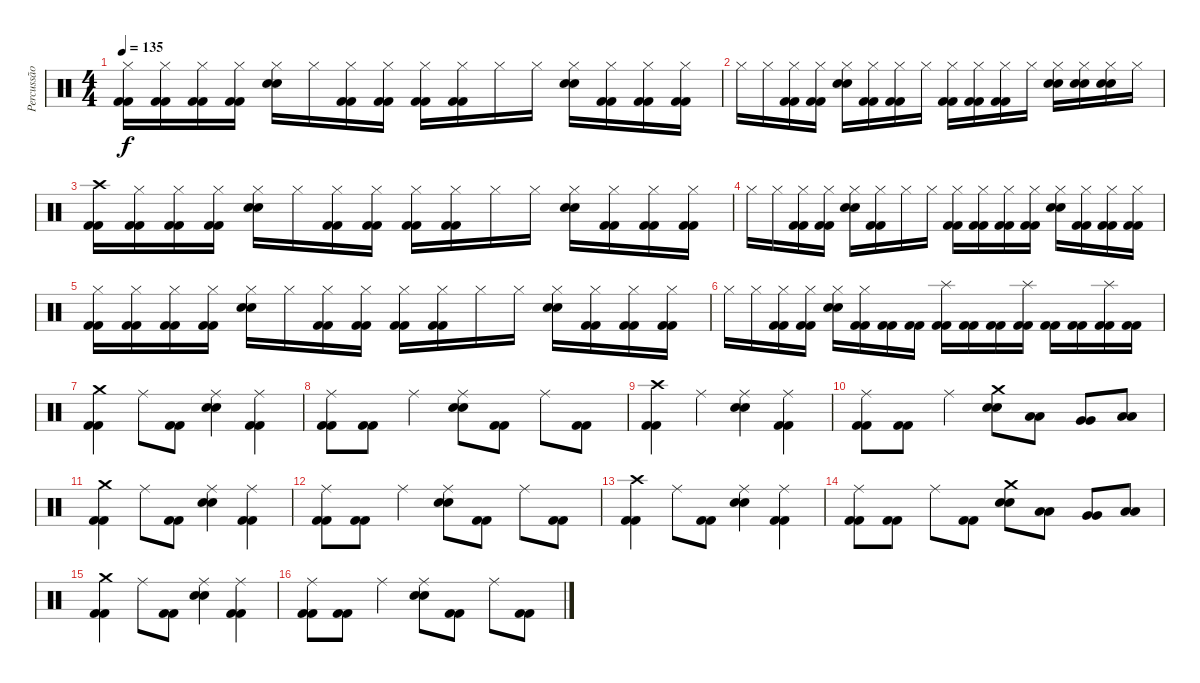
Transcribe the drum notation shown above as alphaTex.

\track ("Percussão" "Percussão") {instrument percussion}
\staff {score}
\articulation defaults
\ts (4 4)
\tempo 135
\clef neutral
\ks c
("Hi-Hat (closed)" "Kick (hit) 2" "Kick (hit) 2").16{dy f} ("Hi-Hat (closed)" "Kick (hit) 2" "Kick (hit) 2").16 ("Hi-Hat (closed)" "Kick (hit) 2" "Kick (hit) 2").16 ("Hi-Hat (closed)" "Kick (hit) 2" "Kick (hit) 2").16 ("Hi-Hat (closed)" "Electric Snare (hit)" "Electric Snare (hit)").16 "Hi-Hat (closed)".16 ("Hi-Hat (closed)" "Kick (hit) 2" "Kick (hit) 2").16 ("Hi-Hat (closed)" "Kick (hit) 2" "Kick (hit) 2").16 ("Hi-Hat (closed)" "Kick (hit) 2" "Kick (hit) 2").16 ("Hi-Hat (closed)" "Kick (hit) 2" "Kick (hit) 2").16 "Hi-Hat (closed)".16 "Hi-Hat (closed)".16 ("Hi-Hat (closed)" "Electric Snare (hit)" "Electric Snare (hit)").16 ("Hi-Hat (closed)" "Kick (hit) 2" "Kick (hit) 2").16 ("Hi-Hat (closed)" "Kick (hit) 2" "Kick (hit) 2").16 ("Hi-Hat (closed)" "Kick (hit) 2" "Kick (hit) 2").16 |
"Hi-Hat (closed)".16 "Hi-Hat (closed)".16 ("Hi-Hat (closed)" "Kick (hit) 2" "Kick (hit) 2").16 ("Hi-Hat (closed)" "Kick (hit) 2" "Kick (hit) 2").16 ("Hi-Hat (closed)" "Electric Snare (hit)" "Electric Snare (hit)").16 ("Hi-Hat (closed)" "Kick (hit) 2" "Kick (hit) 2").16 ("Hi-Hat (closed)" "Kick (hit) 2" "Kick (hit) 2").16 "Hi-Hat (closed)".16 ("Hi-Hat (closed)" "Kick (hit) 2" "Kick (hit) 2").16 ("Hi-Hat (closed)" "Kick (hit) 2" "Kick (hit) 2").16 ("Hi-Hat (closed)" "Kick (hit) 2" "Kick (hit) 2").16 "Hi-Hat (closed)".16 ("Hi-Hat (closed)" "Electric Snare (hit)" "Electric Snare (hit)").16 ("Hi-Hat (closed)" "Electric Snare (hit)" "Electric Snare (hit)").16 ("Hi-Hat (closed)" "Electric Snare (hit)" "Electric Snare (hit)").16 "Hi-Hat (closed)".16 |
("Crash high (hit)" "Kick (hit) 2" "Kick (hit) 2").16 ("Hi-Hat (closed)" "Kick (hit) 2" "Kick (hit) 2").16 ("Hi-Hat (closed)" "Kick (hit) 2" "Kick (hit) 2").16 ("Hi-Hat (closed)" "Kick (hit) 2" "Kick (hit) 2").16 ("Hi-Hat (closed)" "Electric Snare (hit)" "Electric Snare (hit)").16 "Hi-Hat (closed)".16 ("Hi-Hat (closed)" "Kick (hit) 2" "Kick (hit) 2").16 ("Hi-Hat (closed)" "Kick (hit) 2" "Kick (hit) 2").16 ("Hi-Hat (closed)" "Kick (hit) 2" "Kick (hit) 2").16 ("Hi-Hat (closed)" "Kick (hit) 2" "Kick (hit) 2").16 "Hi-Hat (closed)".16 "Hi-Hat (closed)".16 ("Hi-Hat (closed)" "Electric Snare (hit)" "Electric Snare (hit)").16 ("Hi-Hat (closed)" "Kick (hit) 2" "Kick (hit) 2").16 ("Hi-Hat (closed)" "Kick (hit) 2" "Kick (hit) 2").16 ("Hi-Hat (closed)" "Kick (hit) 2" "Kick (hit) 2").16 |
"Hi-Hat (closed)".16 "Hi-Hat (closed)".16 ("Hi-Hat (closed)" "Kick (hit) 2" "Kick (hit) 2").16 ("Hi-Hat (closed)" "Kick (hit) 2" "Kick (hit) 2").16 ("Hi-Hat (closed)" "Electric Snare (hit)" "Electric Snare (hit)").16 ("Hi-Hat (closed)" "Kick (hit) 2" "Kick (hit) 2").16 "Hi-Hat (closed)".16 "Hi-Hat (closed)".16 ("Hi-Hat (closed)" "Kick (hit) 2" "Kick (hit) 2").16 ("Hi-Hat (closed)" "Kick (hit) 2" "Kick (hit) 2").16 ("Hi-Hat (closed)" "Kick (hit) 2" "Kick (hit) 2").16 ("Hi-Hat (closed)" "Kick (hit) 2" "Kick (hit) 2").16 ("Hi-Hat (closed)" "Electric Snare (hit)" "Electric Snare (hit)").16 ("Hi-Hat (closed)" "Kick (hit) 2" "Kick (hit) 2").16 ("Hi-Hat (closed)" "Kick (hit) 2" "Kick (hit) 2").16 ("Hi-Hat (closed)" "Kick (hit) 2" "Kick (hit) 2").16 |
("Hi-Hat (closed)" "Kick (hit) 2" "Kick (hit) 2").16 ("Hi-Hat (closed)" "Kick (hit) 2" "Kick (hit) 2").16 ("Hi-Hat (closed)" "Kick (hit) 2" "Kick (hit) 2").16 ("Hi-Hat (closed)" "Kick (hit) 2" "Kick (hit) 2").16 ("Hi-Hat (closed)" "Electric Snare (hit)" "Electric Snare (hit)").16 "Hi-Hat (closed)".16 ("Hi-Hat (closed)" "Kick (hit) 2" "Kick (hit) 2").16 ("Hi-Hat (closed)" "Kick (hit) 2" "Kick (hit) 2").16 ("Hi-Hat (closed)" "Kick (hit) 2" "Kick (hit) 2").16 ("Hi-Hat (closed)" "Kick (hit) 2" "Kick (hit) 2").16 "Hi-Hat (closed)".16 "Hi-Hat (closed)".16 ("Hi-Hat (closed)" "Electric Snare (hit)" "Electric Snare (hit)").16 ("Hi-Hat (closed)" "Kick (hit) 2" "Kick (hit) 2").16 ("Hi-Hat (closed)" "Kick (hit) 2" "Kick (hit) 2").16 ("Hi-Hat (closed)" "Kick (hit) 2" "Kick (hit) 2").16 |
"Hi-Hat (closed)".16 "Hi-Hat (closed)".16 ("Hi-Hat (closed)" "Kick (hit) 2" "Kick (hit) 2").16 ("Hi-Hat (closed)" "Kick (hit) 2" "Kick (hit) 2").16 ("Hi-Hat (closed)" "Electric Snare (hit)" "Electric Snare (hit)").16 ("Hi-Hat (closed)" "Kick (hit) 2" "Kick (hit) 2").16 ("Kick (hit) 2" "Kick (hit) 2").16 ("Kick (hit) 2" "Kick (hit) 2").16 ("Splash (hit)" "Kick (hit) 2" "Kick (hit) 2").16 ("Kick (hit) 2" "Kick (hit) 2").16 ("Kick (hit) 2" "Kick (hit) 2").16 ("Splash (hit)" "Kick (hit) 2" "Kick (hit) 2").16 ("Kick (hit) 2" "Kick (hit) 2").16 ("Kick (hit) 2" "Kick (hit) 2").16 ("Splash (hit)" "Kick (hit) 2" "Kick (hit) 2").16 ("Kick (hit) 2" "Kick (hit) 2").16 |
("Crash medium (hit)" "Kick (hit) 2" "Kick (hit) 2").4 "Ride (middle)".8 ("Kick (hit) 2" "Kick (hit) 2").8 ("Ride (middle)" "Electric Snare (hit)" "Electric Snare (hit)").4 ("Ride (middle)" "Kick (hit) 2" "Kick (hit) 2").4 |
("Ride (middle)" "Kick (hit) 2" "Kick (hit) 2").8 ("Kick (hit) 2" "Kick (hit) 2").8 "Ride (middle)".4 ("Ride (middle)" "Electric Snare (hit)" "Electric Snare (hit)").8 ("Kick (hit) 2" "Kick (hit) 2").8 "Ride (middle)".8 ("Kick (hit) 2" "Kick (hit) 2").8 |
("Crash high (hit)" "Kick (hit) 2" "Kick (hit) 2").4 "Ride (middle)".4 ("Ride (middle)" "Electric Snare (hit)" "Electric Snare (hit)").4 ("Ride (middle)" "Kick (hit) 2" "Kick (hit) 2").4 |
("Ride (middle)" "Kick (hit) 2" "Kick (hit) 2").8 ("Kick (hit) 2" "Kick (hit) 2").8 "Ride (middle)".4 ("Crash medium (hit)" "Electric Snare (hit)" "Electric Snare (hit)").8 ("Low Floor Tom (hit)" "Low Floor Tom (hit)").8 ("Very Low Tom (hit)" "Very Low Tom (hit)").8 ("Low Floor Tom (hit)" "Low Floor Tom (hit)").8 |
("Crash medium (hit)" "Kick (hit) 2" "Kick (hit) 2").4 "Ride (middle)".8 ("Kick (hit) 2" "Kick (hit) 2").8 ("Ride (middle)" "Electric Snare (hit)" "Electric Snare (hit)").4 ("Ride (middle)" "Kick (hit) 2" "Kick (hit) 2").4 |
("Ride (middle)" "Kick (hit) 2" "Kick (hit) 2").8 ("Kick (hit) 2" "Kick (hit) 2").8 "Ride (middle)".4 ("Ride (middle)" "Electric Snare (hit)" "Electric Snare (hit)").8 ("Kick (hit) 2" "Kick (hit) 2").8 "Ride (middle)".8 ("Kick (hit) 2" "Kick (hit) 2").8 |
("Crash high (hit)" "Kick (hit) 2" "Kick (hit) 2").4 "Ride (middle)".8 ("Kick (hit) 2" "Kick (hit) 2").8 ("Ride (middle)" "Electric Snare (hit)" "Electric Snare (hit)").4 ("Ride (middle)" "Kick (hit) 2" "Kick (hit) 2").4 |
("Ride (middle)" "Kick (hit) 2" "Kick (hit) 2").8 ("Kick (hit) 2" "Kick (hit) 2").8 "Ride (middle)".8 ("Kick (hit) 2" "Kick (hit) 2").8 ("Crash medium (hit)" "Electric Snare (hit)" "Electric Snare (hit)").8 ("Low Floor Tom (hit)" "Low Floor Tom (hit)").8 ("Very Low Tom (hit)" "Very Low Tom (hit)").8 ("Low Floor Tom (hit)" "Low Floor Tom (hit)").8 |
("Crash medium (hit)" "Kick (hit) 2" "Kick (hit) 2").4 "Ride (middle)".8 ("Kick (hit) 2" "Kick (hit) 2").8 ("Ride (middle)" "Electric Snare (hit)" "Electric Snare (hit)").4 ("Ride (middle)" "Kick (hit) 2" "Kick (hit) 2").4 |
("Ride (middle)" "Kick (hit) 2" "Kick (hit) 2").8 ("Kick (hit) 2" "Kick (hit) 2").8 "Ride (middle)".4 ("Ride (middle)" "Electric Snare (hit)" "Electric Snare (hit)").8 ("Kick (hit) 2" "Kick (hit) 2").8 "Ride (middle)".8 ("Kick (hit) 2" "Kick (hit) 2").8
